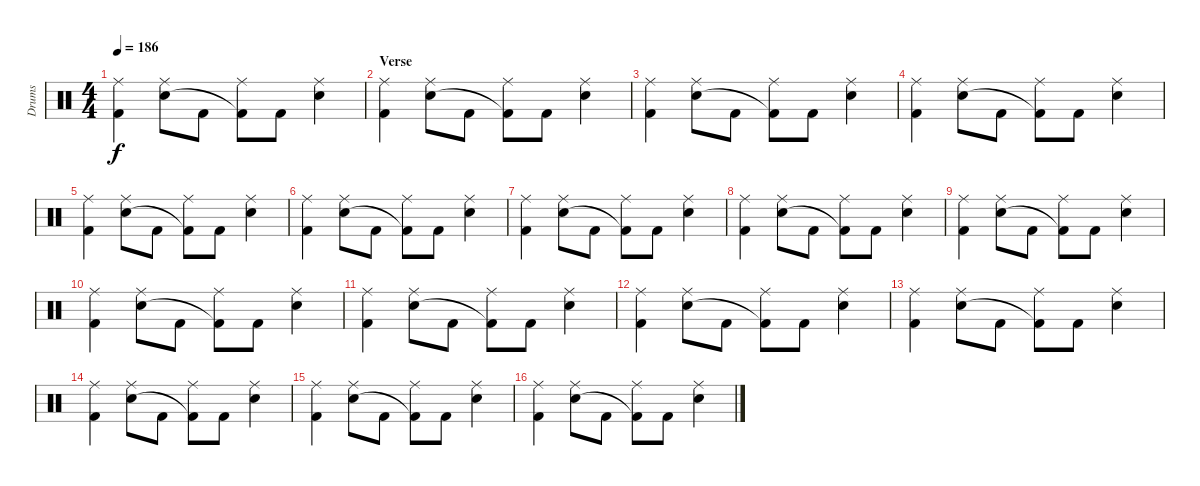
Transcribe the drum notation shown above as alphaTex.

\track ("Drums" "Drums") {instrument percussion}
\staff {score}
\articulation defaults
\ts (4 4)
\tempo 186
\clef neutral
\ks c
("Ride (middle)" "Kick (hit) 2").4{dy f} ("Ride (middle)" "Electric Snare (hit)").8 "Kick (hit) 2".8 ("Ride (middle)" "Kick (hit) 2"{t}).8 "Kick (hit) 2".8 ("Ride (middle)" "Electric Snare (hit)").4 |
\section ("" "Verse")
("Ride (middle)" "Kick (hit) 2").4 ("Ride (middle)" "Electric Snare (hit)").8 "Kick (hit) 2".8 ("Ride (middle)" "Kick (hit) 2"{t}).8 "Kick (hit) 2".8 ("Ride (middle)" "Electric Snare (hit)").4 |
("Ride (middle)" "Kick (hit) 2").4 ("Ride (middle)" "Electric Snare (hit)").8 "Kick (hit) 2".8 ("Ride (middle)" "Kick (hit) 2"{t}).8 "Kick (hit) 2".8 ("Ride (middle)" "Electric Snare (hit)").4 |
("Ride (middle)" "Kick (hit) 2").4 ("Ride (middle)" "Electric Snare (hit)").8 "Kick (hit) 2".8 ("Ride (middle)" "Kick (hit) 2"{t}).8 "Kick (hit) 2".8 ("Ride (middle)" "Electric Snare (hit)").4 |
("Ride (middle)" "Kick (hit) 2").4 ("Ride (middle)" "Electric Snare (hit)").8 "Kick (hit) 2".8 ("Ride (middle)" "Kick (hit) 2"{t}).8 "Kick (hit) 2".8 ("Ride (middle)" "Electric Snare (hit)").4 |
("Ride (middle)" "Kick (hit) 2").4 ("Ride (middle)" "Electric Snare (hit)").8 "Kick (hit) 2".8 ("Ride (middle)" "Kick (hit) 2"{t}).8 "Kick (hit) 2".8 ("Ride (middle)" "Electric Snare (hit)").4 |
("Ride (middle)" "Kick (hit) 2").4 ("Ride (middle)" "Electric Snare (hit)").8 "Kick (hit) 2".8 ("Ride (middle)" "Kick (hit) 2"{t}).8 "Kick (hit) 2".8 ("Ride (middle)" "Electric Snare (hit)").4 |
("Ride (middle)" "Kick (hit) 2").4 ("Ride (middle)" "Electric Snare (hit)").8 "Kick (hit) 2".8 ("Ride (middle)" "Kick (hit) 2"{t}).8 "Kick (hit) 2".8 ("Ride (middle)" "Electric Snare (hit)").4 |
("Ride (middle)" "Kick (hit) 2").4 ("Ride (middle)" "Electric Snare (hit)").8 "Kick (hit) 2".8 ("Ride (middle)" "Kick (hit) 2"{t}).8 "Kick (hit) 2".8 ("Ride (middle)" "Electric Snare (hit)").4 |
("Ride (middle)" "Kick (hit) 2").4 ("Ride (middle)" "Electric Snare (hit)").8 "Kick (hit) 2".8 ("Ride (middle)" "Kick (hit) 2"{t}).8 "Kick (hit) 2".8 ("Ride (middle)" "Electric Snare (hit)").4 |
("Ride (middle)" "Kick (hit) 2").4 ("Ride (middle)" "Electric Snare (hit)").8 "Kick (hit) 2".8 ("Ride (middle)" "Kick (hit) 2"{t}).8 "Kick (hit) 2".8 ("Ride (middle)" "Electric Snare (hit)").4 |
("Ride (middle)" "Kick (hit) 2").4 ("Ride (middle)" "Electric Snare (hit)").8 "Kick (hit) 2".8 ("Ride (middle)" "Kick (hit) 2"{t}).8 "Kick (hit) 2".8 ("Ride (middle)" "Electric Snare (hit)").4 |
("Ride (middle)" "Kick (hit) 2").4 ("Ride (middle)" "Electric Snare (hit)").8 "Kick (hit) 2".8 ("Ride (middle)" "Kick (hit) 2"{t}).8 "Kick (hit) 2".8 ("Ride (middle)" "Electric Snare (hit)").4 |
("Ride (middle)" "Kick (hit) 2").4 ("Ride (middle)" "Electric Snare (hit)").8 "Kick (hit) 2".8 ("Ride (middle)" "Kick (hit) 2"{t}).8 "Kick (hit) 2".8 ("Ride (middle)" "Electric Snare (hit)").4 |
("Ride (middle)" "Kick (hit) 2").4 ("Ride (middle)" "Electric Snare (hit)").8 "Kick (hit) 2".8 ("Ride (middle)" "Kick (hit) 2"{t}).8 "Kick (hit) 2".8 ("Ride (middle)" "Electric Snare (hit)").4 |
("Ride (middle)" "Kick (hit) 2").4 ("Ride (middle)" "Electric Snare (hit)").8 "Kick (hit) 2".8 ("Ride (middle)" "Kick (hit) 2"{t}).8 "Kick (hit) 2".8 ("Ride (middle)" "Electric Snare (hit)").4
